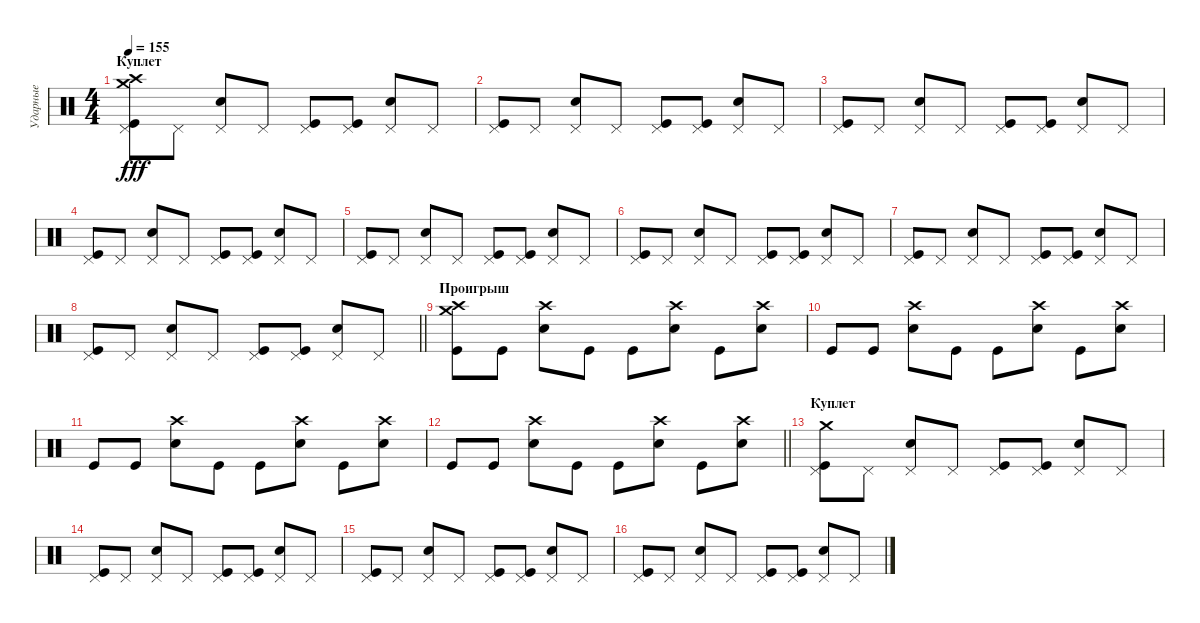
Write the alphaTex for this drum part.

\track ("Ударные" "Ударные") {instrument percussion}
\staff {score}
\articulation defaults
\ts (4 4)
\section ("" "Куплет")
\tempo 155
\clef neutral
\ks c
("Pedal Hi-Hat (hit)" "Kick (hit)" "Crash high (hit)" "Crash medium (hit)").8{dy fff} "Pedal Hi-Hat (hit)".8 ("Pedal Hi-Hat (hit)" "Electric Snare (hit)").8 "Pedal Hi-Hat (hit)".8 ("Pedal Hi-Hat (hit)" "Kick (hit)").8 ("Pedal Hi-Hat (hit)" "Kick (hit)").8 ("Pedal Hi-Hat (hit)" "Electric Snare (hit)").8 "Pedal Hi-Hat (hit)".8 |
("Pedal Hi-Hat (hit)" "Kick (hit)").8 "Pedal Hi-Hat (hit)".8 ("Pedal Hi-Hat (hit)" "Electric Snare (hit)").8 "Pedal Hi-Hat (hit)".8 ("Pedal Hi-Hat (hit)" "Kick (hit)").8 ("Pedal Hi-Hat (hit)" "Kick (hit)").8 ("Pedal Hi-Hat (hit)" "Electric Snare (hit)").8 "Pedal Hi-Hat (hit)".8 |
("Pedal Hi-Hat (hit)" "Kick (hit)").8 "Pedal Hi-Hat (hit)".8 ("Pedal Hi-Hat (hit)" "Electric Snare (hit)").8 "Pedal Hi-Hat (hit)".8 ("Pedal Hi-Hat (hit)" "Kick (hit)").8 ("Pedal Hi-Hat (hit)" "Kick (hit)").8 ("Pedal Hi-Hat (hit)" "Electric Snare (hit)").8 "Pedal Hi-Hat (hit)".8 |
("Pedal Hi-Hat (hit)" "Kick (hit)").8 "Pedal Hi-Hat (hit)".8 ("Pedal Hi-Hat (hit)" "Electric Snare (hit)").8 "Pedal Hi-Hat (hit)".8 ("Pedal Hi-Hat (hit)" "Kick (hit)").8 ("Pedal Hi-Hat (hit)" "Kick (hit)").8 ("Pedal Hi-Hat (hit)" "Electric Snare (hit)").8 "Pedal Hi-Hat (hit)".8 |
("Pedal Hi-Hat (hit)" "Kick (hit)").8 "Pedal Hi-Hat (hit)".8 ("Pedal Hi-Hat (hit)" "Electric Snare (hit)").8 "Pedal Hi-Hat (hit)".8 ("Pedal Hi-Hat (hit)" "Kick (hit)").8 ("Pedal Hi-Hat (hit)" "Kick (hit)").8 ("Pedal Hi-Hat (hit)" "Electric Snare (hit)").8 "Pedal Hi-Hat (hit)".8 |
("Pedal Hi-Hat (hit)" "Kick (hit)").8 "Pedal Hi-Hat (hit)".8 ("Pedal Hi-Hat (hit)" "Electric Snare (hit)").8 "Pedal Hi-Hat (hit)".8 ("Pedal Hi-Hat (hit)" "Kick (hit)").8 ("Pedal Hi-Hat (hit)" "Kick (hit)").8 ("Pedal Hi-Hat (hit)" "Electric Snare (hit)").8 "Pedal Hi-Hat (hit)".8 |
("Pedal Hi-Hat (hit)" "Kick (hit)").8 "Pedal Hi-Hat (hit)".8 ("Pedal Hi-Hat (hit)" "Electric Snare (hit)").8 "Pedal Hi-Hat (hit)".8 ("Pedal Hi-Hat (hit)" "Kick (hit)").8 ("Pedal Hi-Hat (hit)" "Kick (hit)").8 ("Pedal Hi-Hat (hit)" "Electric Snare (hit)").8 "Pedal Hi-Hat (hit)".8 |
\barLineRight lightlight
("Pedal Hi-Hat (hit)" "Kick (hit)").8 "Pedal Hi-Hat (hit)".8 ("Pedal Hi-Hat (hit)" "Electric Snare (hit)").8 "Pedal Hi-Hat (hit)".8 ("Pedal Hi-Hat (hit)" "Kick (hit)").8 ("Pedal Hi-Hat (hit)" "Kick (hit)").8 ("Pedal Hi-Hat (hit)" "Electric Snare (hit)").8 "Pedal Hi-Hat (hit)".8 |
\section ("" "Проигрыш")
("Crash high (hit)" "Kick (hit)" "Crash medium (hit)").8 "Kick (hit)".8 ("Electric Snare (hit)" "Crash high (hit)").8 "Kick (hit)".8 "Kick (hit)".8 ("Electric Snare (hit)" "Crash high (hit)").8 "Kick (hit)".8 ("Electric Snare (hit)" "Crash high (hit)").8 |
"Kick (hit)".8 "Kick (hit)".8 ("Electric Snare (hit)" "Crash high (hit)").8 "Kick (hit)".8 "Kick (hit)".8 ("Electric Snare (hit)" "Crash high (hit)").8 "Kick (hit)".8 ("Electric Snare (hit)" "Crash high (hit)").8 |
"Kick (hit)".8 "Kick (hit)".8 ("Electric Snare (hit)" "Crash high (hit)").8 "Kick (hit)".8 "Kick (hit)".8 ("Electric Snare (hit)" "Crash high (hit)").8 "Kick (hit)".8 ("Electric Snare (hit)" "Crash high (hit)").8 |
\barLineRight lightlight "Kick (hit)".8 "Kick (hit)".8
("Electric Snare (hit)" "Crash high (hit)").8 "Kick (hit)".8 "Kick (hit)".8 ("Electric Snare (hit)" "Crash high (hit)").8 "Kick (hit)".8 ("Electric Snare (hit)" "Crash high (hit)").8 |
\section ("" "Куплет")
("Pedal Hi-Hat (hit)" "Kick (hit)" "Crash medium (hit)").8 "Pedal Hi-Hat (hit)".8 ("Pedal Hi-Hat (hit)" "Electric Snare (hit)").8 "Pedal Hi-Hat (hit)".8 ("Pedal Hi-Hat (hit)" "Kick (hit)").8 ("Pedal Hi-Hat (hit)" "Kick (hit)").8 ("Pedal Hi-Hat (hit)" "Electric Snare (hit)").8 "Pedal Hi-Hat (hit)".8 |
("Pedal Hi-Hat (hit)" "Kick (hit)").8 "Pedal Hi-Hat (hit)".8 ("Pedal Hi-Hat (hit)" "Electric Snare (hit)").8 "Pedal Hi-Hat (hit)".8 ("Pedal Hi-Hat (hit)" "Kick (hit)").8 ("Pedal Hi-Hat (hit)" "Kick (hit)").8 ("Pedal Hi-Hat (hit)" "Electric Snare (hit)").8 "Pedal Hi-Hat (hit)".8 |
("Pedal Hi-Hat (hit)" "Kick (hit)").8 "Pedal Hi-Hat (hit)".8 ("Pedal Hi-Hat (hit)" "Electric Snare (hit)").8 "Pedal Hi-Hat (hit)".8 ("Pedal Hi-Hat (hit)" "Kick (hit)").8 ("Pedal Hi-Hat (hit)" "Kick (hit)").8 ("Pedal Hi-Hat (hit)" "Electric Snare (hit)").8 "Pedal Hi-Hat (hit)".8 |
("Pedal Hi-Hat (hit)" "Kick (hit)").8 "Pedal Hi-Hat (hit)".8 ("Pedal Hi-Hat (hit)" "Electric Snare (hit)").8 "Pedal Hi-Hat (hit)".8 ("Pedal Hi-Hat (hit)" "Kick (hit)").8 ("Pedal Hi-Hat (hit)" "Kick (hit)").8 ("Pedal Hi-Hat (hit)" "Electric Snare (hit)").8 "Pedal Hi-Hat (hit)".8
